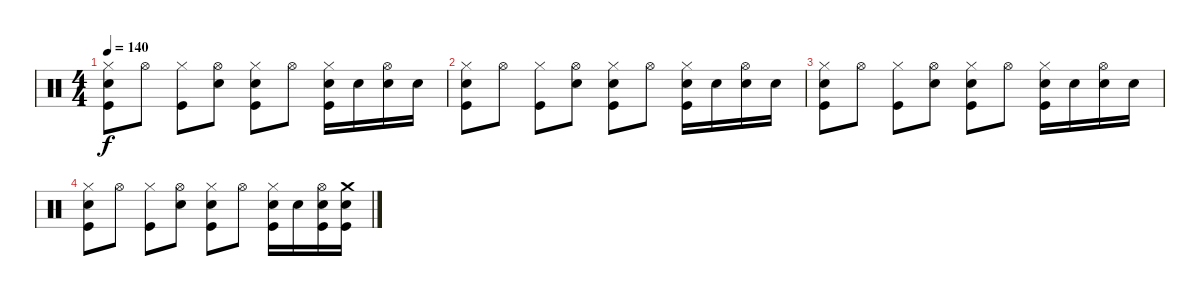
\track "" {instrument percussion}
\staff {score}
\articulation defaults
\ts (4 4)
\tempo 140
\clef neutral
\ks c
("Snare (hit) 2" "Hi-Hat (closed)" "Kick (hit)").8{dy f} "Hi-Hat (open)".8 ("Hi-Hat (closed)" "Kick (hit)").8 ("Snare (hit) 2" "Hi-Hat (open)").8 ("Snare (hit) 2" "Hi-Hat (closed)" "Kick (hit)").8 "Hi-Hat (open)".8 ("Snare (hit) 2" "Hi-Hat (closed)" "Kick (hit)").16 "Snare (hit) 2".16 ("Snare (hit) 2" "Hi-Hat (open)").16 "Snare (hit) 2".16 |
("Snare (hit) 2" "Hi-Hat (closed)" "Kick (hit)").8 "Hi-Hat (open)".8 ("Hi-Hat (closed)" "Kick (hit)").8 ("Snare (hit) 2" "Hi-Hat (open)").8 ("Snare (hit) 2" "Hi-Hat (closed)" "Kick (hit)").8 "Hi-Hat (open)".8 ("Snare (hit) 2" "Hi-Hat (closed)" "Kick (hit)").16 "Snare (hit) 2".16 ("Snare (hit) 2" "Hi-Hat (open)").16 "Snare (hit) 2".16 |
("Snare (hit) 2" "Hi-Hat (closed)" "Kick (hit)").8 "Hi-Hat (open)".8 ("Hi-Hat (closed)" "Kick (hit)").8 ("Snare (hit) 2" "Hi-Hat (open)").8 ("Snare (hit) 2" "Hi-Hat (closed)" "Kick (hit)").8 "Hi-Hat (open)".8 ("Snare (hit) 2" "Hi-Hat (closed)" "Kick (hit)").16 "Snare (hit) 2".16 ("Snare (hit) 2" "Hi-Hat (open)").16 "Snare (hit) 2".16 |
("Snare (hit) 2" "Hi-Hat (closed)" "Kick (hit)").8 "Hi-Hat (open)".8 ("Hi-Hat (closed)" "Kick (hit)").8 ("Snare (hit) 2" "Hi-Hat (open)").8 ("Snare (hit) 2" "Hi-Hat (closed)" "Kick (hit)").8 "Hi-Hat (open)".8 ("Snare (hit) 2" "Hi-Hat (closed)" "Kick (hit)").16 "Snare (hit) 2".16 ("Kick (hit)" "Snare (hit) 2" "Hi-Hat (open)").16 ("Crash medium (hit)" "Kick (hit)" "Snare (hit) 2").16
